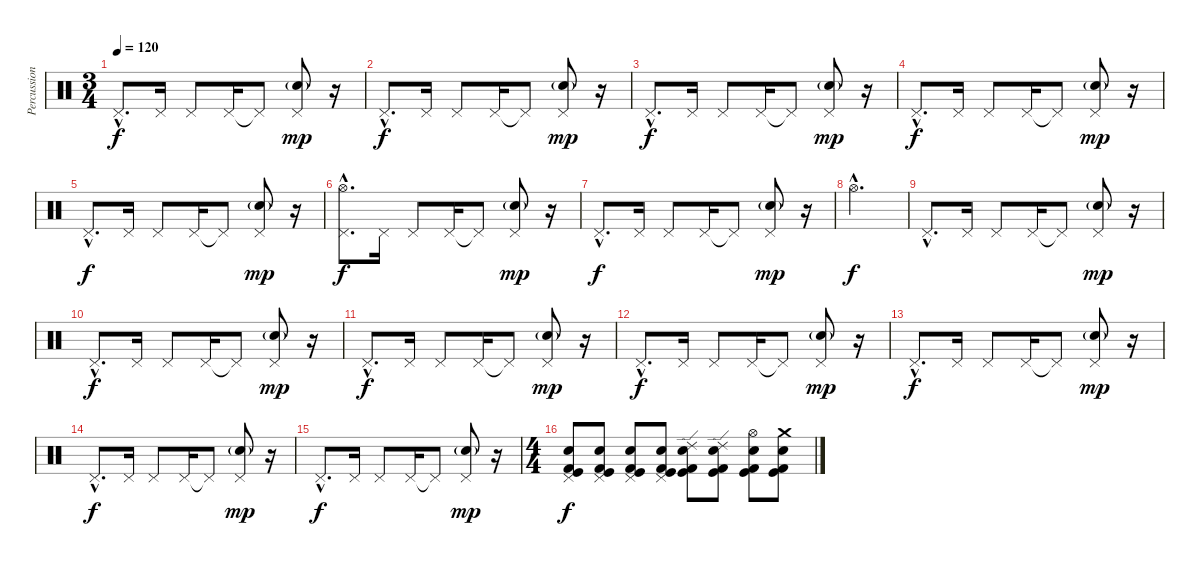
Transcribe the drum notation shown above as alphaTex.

\track ("Percussions" "Percussion") {instrument percussion}
\staff {score}
\articulation defaults
\ts (3 4)
\tempo 120
\clef neutral
\ks c "Pedal Hi-Hat (hit)"{hac}.8{d dy f volume 8} "Pedal Hi-Hat (hit)".16 "Pedal Hi-Hat (hit)".8 "Pedal Hi-Hat (hit)".16 "Pedal Hi-Hat (hit)"{t}.8
("Pedal Hi-Hat (hit)" "Electric Snare (hit)"{g}).8{dy mp} r.16 |
"Pedal Hi-Hat (hit)"{hac}.8{d dy f volume 8} "Pedal Hi-Hat (hit)".16 "Pedal Hi-Hat (hit)".8 "Pedal Hi-Hat (hit)".16 "Pedal Hi-Hat (hit)"{t}.8 ("Pedal Hi-Hat (hit)" "Electric Snare (hit)"{g}).8{dy mp} r.16 |
"Pedal Hi-Hat (hit)"{hac}.8{d dy f volume 8} "Pedal Hi-Hat (hit)".16 "Pedal Hi-Hat (hit)".8 "Pedal Hi-Hat (hit)".16 "Pedal Hi-Hat (hit)"{t}.8 ("Pedal Hi-Hat (hit)" "Electric Snare (hit)"{g}).8{dy mp} r.16 |
"Pedal Hi-Hat (hit)"{hac}.8{d dy f volume 8} "Pedal Hi-Hat (hit)".16 "Pedal Hi-Hat (hit)".8 "Pedal Hi-Hat (hit)".16 "Pedal Hi-Hat (hit)"{t}.8 ("Pedal Hi-Hat (hit)" "Electric Snare (hit)"{g}).8{dy mp} r.16 |
"Pedal Hi-Hat (hit)"{hac}.8{d dy f volume 8} "Pedal Hi-Hat (hit)".16 "Pedal Hi-Hat (hit)".8 "Pedal Hi-Hat (hit)".16 "Pedal Hi-Hat (hit)"{t}.8 ("Pedal Hi-Hat (hit)" "Electric Snare (hit)"{g}).8{dy mp} r.16 |
("Pedal Hi-Hat (hit)"{hac} "Hi-Hat (open)"{hac}).8{d dy f volume 8} "Pedal Hi-Hat (hit)".16 "Pedal Hi-Hat (hit)".8 "Pedal Hi-Hat (hit)".16 "Pedal Hi-Hat (hit)"{t}.8 ("Pedal Hi-Hat (hit)" "Electric Snare (hit)"{g}).8{dy mp} r.16 |
"Pedal Hi-Hat (hit)"{hac}.8{d dy f volume 8} "Pedal Hi-Hat (hit)".16 "Pedal Hi-Hat (hit)".8 "Pedal Hi-Hat (hit)".16 "Pedal Hi-Hat (hit)"{t}.8 ("Pedal Hi-Hat (hit)" "Electric Snare (hit)"{g}).8{dy mp} r.16 |
"Hi-Hat (open)"{hac}.2{d dy f} |
"Pedal Hi-Hat (hit)"{hac}.8{d volume 8} "Pedal Hi-Hat (hit)".16 "Pedal Hi-Hat (hit)".8 "Pedal Hi-Hat (hit)".16 "Pedal Hi-Hat (hit)"{t}.8 ("Pedal Hi-Hat (hit)" "Electric Snare (hit)"{g}).8{dy mp} r.16 |
"Pedal Hi-Hat (hit)"{hac}.8{d dy f volume 8} "Pedal Hi-Hat (hit)".16 "Pedal Hi-Hat (hit)".8 "Pedal Hi-Hat (hit)".16 "Pedal Hi-Hat (hit)"{t}.8 ("Pedal Hi-Hat (hit)" "Electric Snare (hit)"{g}).8{dy mp} r.16 |
"Pedal Hi-Hat (hit)"{hac}.8{d dy f volume 8} "Pedal Hi-Hat (hit)".16 "Pedal Hi-Hat (hit)".8 "Pedal Hi-Hat (hit)".16 "Pedal Hi-Hat (hit)"{t}.8 ("Pedal Hi-Hat (hit)" "Electric Snare (hit)"{g}).8{dy mp} r.16 |
"Pedal Hi-Hat (hit)"{hac}.8{d dy f volume 8} "Pedal Hi-Hat (hit)".16 "Pedal Hi-Hat (hit)".8 "Pedal Hi-Hat (hit)".16 "Pedal Hi-Hat (hit)"{t}.8 ("Pedal Hi-Hat (hit)" "Electric Snare (hit)"{g}).8{dy mp} r.16 |
"Pedal Hi-Hat (hit)"{hac}.8{d dy f volume 8} "Pedal Hi-Hat (hit)".16 "Pedal Hi-Hat (hit)".8 "Pedal Hi-Hat (hit)".16 "Pedal Hi-Hat (hit)"{t}.8 ("Pedal Hi-Hat (hit)" "Electric Snare (hit)"{g}).8{dy mp} r.16 |
"Pedal Hi-Hat (hit)"{hac}.8{d dy f volume 8} "Pedal Hi-Hat (hit)".16 "Pedal Hi-Hat (hit)".8 "Pedal Hi-Hat (hit)".16 "Pedal Hi-Hat (hit)"{t}.8 ("Pedal Hi-Hat (hit)" "Electric Snare (hit)"{g}).8{dy mp} r.16 |
"Pedal Hi-Hat (hit)"{hac}.8{d dy f volume 8} "Pedal Hi-Hat (hit)".16 "Pedal Hi-Hat (hit)".8 "Pedal Hi-Hat (hit)".16 "Pedal Hi-Hat (hit)"{t}.8 ("Pedal Hi-Hat (hit)" "Electric Snare (hit)"{g}).8{dy mp} r.16 |
\ts (4 4)
("Kick (hit) 2" "Kick (hit)" "Electric Snare (hit)" "Pedal Hi-Hat (hit)").8{dy f volume 9} ("Kick (hit) 2" "Kick (hit)" "Electric Snare (hit)" "Pedal Hi-Hat (hit)").8{volume 10} ("Kick (hit) 2" "Kick (hit)" "Electric Snare (hit)" "Pedal Hi-Hat (hit)").8{volume 11} ("Kick (hit) 2" "Kick (hit)" "Electric Snare (hit)" "Pedal Hi-Hat (hit)").8{volume 12} ("Kick (hit) 2" "Kick (hit)" "Electric Snare (hit)" "Ride (edge) 2").8{volume 13} ("Kick (hit) 2" "Kick (hit)" "Electric Snare (hit)" "Ride (edge) 2").8{volume 14} ("Kick (hit) 2" "Kick (hit)" "Electric Snare (hit)" "Hi-Hat (open)").8{volume 15} ("Kick (hit) 2" "Kick (hit)" "Electric Snare (hit)" "Crash medium (hit)").8{volume 16}
